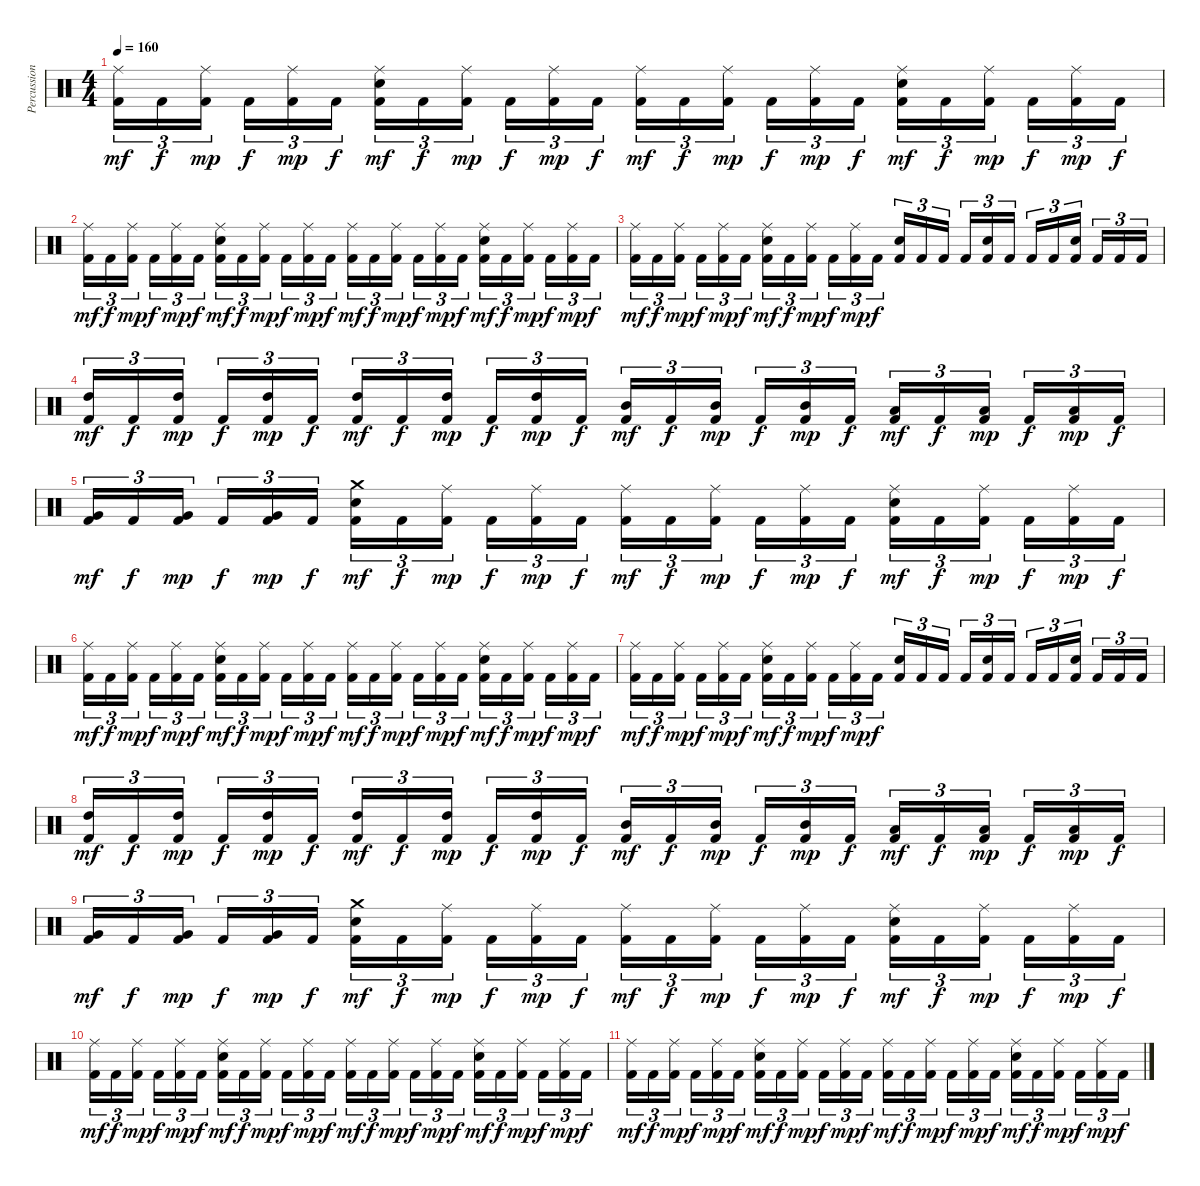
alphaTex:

\track ("Percussion" "Percussion") {instrument percussion}
\staff {score}
\articulation defaults
\ts (4 4)
\tempo 160
\clef neutral
\ks c
("Ride (middle)" "Kick (hit) 2").16{tu (3 2) dy mf} "Kick (hit) 2".16{tu (3 2) dy f} ("Ride (middle)" "Kick (hit) 2").16{tu (3 2) dy mp} "Kick (hit) 2".16{tu (3 2) dy f} ("Ride (middle)" "Kick (hit) 2").16{tu (3 2) dy mp} "Kick (hit) 2".16{tu (3 2) dy f} ("Ride (middle)" "Electric Snare (hit)" "Kick (hit) 2").16{tu (3 2) dy mf} "Kick (hit) 2".16{tu (3 2) dy f} ("Ride (middle)" "Kick (hit) 2").16{tu (3 2) dy mp} "Kick (hit) 2".16{tu (3 2) dy f} ("Ride (middle)" "Kick (hit) 2").16{tu (3 2) dy mp} "Kick (hit) 2".16{tu (3 2) dy f} ("Ride (middle)" "Kick (hit) 2").16{tu (3 2) dy mf} "Kick (hit) 2".16{tu (3 2) dy f} ("Ride (middle)" "Kick (hit) 2").16{tu (3 2) dy mp} "Kick (hit) 2".16{tu (3 2) dy f} ("Ride (middle)" "Kick (hit) 2").16{tu (3 2) dy mp} "Kick (hit) 2".16{tu (3 2) dy f} ("Ride (middle)" "Electric Snare (hit)" "Kick (hit) 2").16{tu (3 2) dy mf} "Kick (hit) 2".16{tu (3 2) dy f} ("Ride (middle)" "Kick (hit) 2").16{tu (3 2) dy mp} "Kick (hit) 2".16{tu (3 2) dy f} ("Ride (middle)" "Kick (hit) 2").16{tu (3 2) dy mp} "Kick (hit) 2".16{tu (3 2) dy f} |
("Ride (middle)" "Kick (hit) 2").16{tu (3 2) dy mf} "Kick (hit) 2".16{tu (3 2) dy f} ("Ride (middle)" "Kick (hit) 2").16{tu (3 2) dy mp} "Kick (hit) 2".16{tu (3 2) dy f} ("Ride (middle)" "Kick (hit) 2").16{tu (3 2) dy mp} "Kick (hit) 2".16{tu (3 2) dy f} ("Ride (middle)" "Electric Snare (hit)" "Kick (hit) 2").16{tu (3 2) dy mf} "Kick (hit) 2".16{tu (3 2) dy f} ("Ride (middle)" "Kick (hit) 2").16{tu (3 2) dy mp} "Kick (hit) 2".16{tu (3 2) dy f} ("Ride (middle)" "Kick (hit) 2").16{tu (3 2) dy mp} "Kick (hit) 2".16{tu (3 2) dy f} ("Ride (middle)" "Kick (hit) 2").16{tu (3 2) dy mf} "Kick (hit) 2".16{tu (3 2) dy f} ("Ride (middle)" "Kick (hit) 2").16{tu (3 2) dy mp} "Kick (hit) 2".16{tu (3 2) dy f} ("Ride (middle)" "Kick (hit) 2").16{tu (3 2) dy mp} "Kick (hit) 2".16{tu (3 2) dy f} ("Ride (middle)" "Electric Snare (hit)" "Kick (hit) 2").16{tu (3 2) dy mf} "Kick (hit) 2".16{tu (3 2) dy f} ("Ride (middle)" "Kick (hit) 2").16{tu (3 2) dy mp} "Kick (hit) 2".16{tu (3 2) dy f} ("Ride (middle)" "Kick (hit) 2").16{tu (3 2) dy mp} "Kick (hit) 2".16{tu (3 2) dy f} |
("Ride (middle)" "Kick (hit) 2").16{tu (3 2) dy mf} "Kick (hit) 2".16{tu (3 2) dy f} ("Ride (middle)" "Kick (hit) 2").16{tu (3 2) dy mp} "Kick (hit) 2".16{tu (3 2) dy f} ("Ride (middle)" "Kick (hit) 2").16{tu (3 2) dy mp} "Kick (hit) 2".16{tu (3 2) dy f} ("Ride (middle)" "Electric Snare (hit)" "Kick (hit) 2").16{tu (3 2) dy mf} "Kick (hit) 2".16{tu (3 2) dy f} ("Ride (middle)" "Kick (hit) 2").16{tu (3 2) dy mp} "Kick (hit) 2".16{tu (3 2) dy f} ("Ride (middle)" "Kick (hit) 2").16{tu (3 2) dy mp} "Kick (hit) 2".16{tu (3 2) dy f} ("Electric Snare (hit)" "Kick (hit) 2").16{tu (3 2)} "Kick (hit) 2".16{tu (3 2)} "Kick (hit) 2".16{tu (3 2)} "Kick (hit) 2".16{tu (3 2)} ("Electric Snare (hit)" "Kick (hit) 2").16{tu (3 2)} "Kick (hit) 2".16{tu (3 2)} "Kick (hit) 2".16{tu (3 2)} "Kick (hit) 2".16{tu (3 2)} ("Electric Snare (hit)" "Kick (hit) 2").16{tu (3 2)} "Kick (hit) 2".16{tu (3 2)} "Kick (hit) 2".16{tu (3 2)} "Kick (hit) 2".16{tu (3 2)} |
("High Tom (hit)" "Kick (hit) 2").16{tu (3 2) dy mf} "Kick (hit) 2".16{tu (3 2) dy f} ("High Tom (hit)" "Kick (hit) 2").16{tu (3 2) dy mp} "Kick (hit) 2".16{tu (3 2) dy f} ("High Tom (hit)" "Kick (hit) 2").16{tu (3 2) dy mp} "Kick (hit) 2".16{tu (3 2) dy f} ("High Tom (hit)" "Kick (hit) 2").16{tu (3 2) dy mf} "Kick (hit) 2".16{tu (3 2) dy f} ("High Tom (hit)" "Kick (hit) 2").16{tu (3 2) dy mp} "Kick (hit) 2".16{tu (3 2) dy f} ("High Tom (hit)" "Kick (hit) 2").16{tu (3 2) dy mp} "Kick (hit) 2".16{tu (3 2) dy f} ("Mid Tom (hit)" "Kick (hit) 2").16{tu (3 2) dy mf} "Kick (hit) 2".16{tu (3 2) dy f} ("Mid Tom (hit)" "Kick (hit) 2").16{tu (3 2) dy mp} "Kick (hit) 2".16{tu (3 2) dy f} ("Mid Tom (hit)" "Kick (hit) 2").16{tu (3 2) dy mp} "Kick (hit) 2".16{tu (3 2) dy f} ("Low Tom (hit)" "Kick (hit) 2").16{tu (3 2) dy mf} "Kick (hit) 2".16{tu (3 2) dy f} ("Low Tom (hit)" "Kick (hit) 2").16{tu (3 2) dy mp} "Kick (hit) 2".16{tu (3 2) dy f} ("Low Tom (hit)" "Kick (hit) 2").16{tu (3 2) dy mp} "Kick (hit) 2".16{tu (3 2) dy f} |
("Very Low Tom (hit)" "Kick (hit) 2").16{tu (3 2) dy mf} "Kick (hit) 2".16{tu (3 2) dy f} ("Very Low Tom (hit)" "Kick (hit) 2").16{tu (3 2) dy mp} "Kick (hit) 2".16{tu (3 2) dy f} ("Very Low Tom (hit)" "Kick (hit) 2").16{tu (3 2) dy mp} "Kick (hit) 2".16{tu (3 2) dy f} ("Crash medium (hit)" "Electric Snare (hit)" "Kick (hit) 2").16{tu (3 2) dy mf} "Kick (hit) 2".16{tu (3 2) dy f} ("Ride (middle)" "Kick (hit) 2").16{tu (3 2) dy mp} "Kick (hit) 2".16{tu (3 2) dy f} ("Ride (middle)" "Kick (hit) 2").16{tu (3 2) dy mp} "Kick (hit) 2".16{tu (3 2) dy f} ("Ride (middle)" "Kick (hit) 2").16{tu (3 2) dy mf} "Kick (hit) 2".16{tu (3 2) dy f} ("Ride (middle)" "Kick (hit) 2").16{tu (3 2) dy mp} "Kick (hit) 2".16{tu (3 2) dy f} ("Ride (middle)" "Kick (hit) 2").16{tu (3 2) dy mp} "Kick (hit) 2".16{tu (3 2) dy f} ("Ride (middle)" "Electric Snare (hit)" "Kick (hit) 2").16{tu (3 2) dy mf} "Kick (hit) 2".16{tu (3 2) dy f} ("Ride (middle)" "Kick (hit) 2").16{tu (3 2) dy mp} "Kick (hit) 2".16{tu (3 2) dy f} ("Ride (middle)" "Kick (hit) 2").16{tu (3 2) dy mp} "Kick (hit) 2".16{tu (3 2) dy f} |
("Ride (middle)" "Kick (hit) 2").16{tu (3 2) dy mf} "Kick (hit) 2".16{tu (3 2) dy f} ("Ride (middle)" "Kick (hit) 2").16{tu (3 2) dy mp} "Kick (hit) 2".16{tu (3 2) dy f} ("Ride (middle)" "Kick (hit) 2").16{tu (3 2) dy mp} "Kick (hit) 2".16{tu (3 2) dy f} ("Ride (middle)" "Electric Snare (hit)" "Kick (hit) 2").16{tu (3 2) dy mf} "Kick (hit) 2".16{tu (3 2) dy f} ("Ride (middle)" "Kick (hit) 2").16{tu (3 2) dy mp} "Kick (hit) 2".16{tu (3 2) dy f} ("Ride (middle)" "Kick (hit) 2").16{tu (3 2) dy mp} "Kick (hit) 2".16{tu (3 2) dy f} ("Ride (middle)" "Kick (hit) 2").16{tu (3 2) dy mf} "Kick (hit) 2".16{tu (3 2) dy f} ("Ride (middle)" "Kick (hit) 2").16{tu (3 2) dy mp} "Kick (hit) 2".16{tu (3 2) dy f} ("Ride (middle)" "Kick (hit) 2").16{tu (3 2) dy mp} "Kick (hit) 2".16{tu (3 2) dy f} ("Ride (middle)" "Electric Snare (hit)" "Kick (hit) 2").16{tu (3 2) dy mf} "Kick (hit) 2".16{tu (3 2) dy f} ("Ride (middle)" "Kick (hit) 2").16{tu (3 2) dy mp} "Kick (hit) 2".16{tu (3 2) dy f} ("Ride (middle)" "Kick (hit) 2").16{tu (3 2) dy mp} "Kick (hit) 2".16{tu (3 2) dy f} |
("Ride (middle)" "Kick (hit) 2").16{tu (3 2) dy mf} "Kick (hit) 2".16{tu (3 2) dy f} ("Ride (middle)" "Kick (hit) 2").16{tu (3 2) dy mp} "Kick (hit) 2".16{tu (3 2) dy f} ("Ride (middle)" "Kick (hit) 2").16{tu (3 2) dy mp} "Kick (hit) 2".16{tu (3 2) dy f} ("Ride (middle)" "Electric Snare (hit)" "Kick (hit) 2").16{tu (3 2) dy mf} "Kick (hit) 2".16{tu (3 2) dy f} ("Ride (middle)" "Kick (hit) 2").16{tu (3 2) dy mp} "Kick (hit) 2".16{tu (3 2) dy f} ("Ride (middle)" "Kick (hit) 2").16{tu (3 2) dy mp} "Kick (hit) 2".16{tu (3 2) dy f} ("Electric Snare (hit)" "Kick (hit) 2").16{tu (3 2)} "Kick (hit) 2".16{tu (3 2)} "Kick (hit) 2".16{tu (3 2)} "Kick (hit) 2".16{tu (3 2)} ("Electric Snare (hit)" "Kick (hit) 2").16{tu (3 2)} "Kick (hit) 2".16{tu (3 2)} "Kick (hit) 2".16{tu (3 2)} "Kick (hit) 2".16{tu (3 2)} ("Electric Snare (hit)" "Kick (hit) 2").16{tu (3 2)} "Kick (hit) 2".16{tu (3 2)} "Kick (hit) 2".16{tu (3 2)} "Kick (hit) 2".16{tu (3 2)} |
("High Tom (hit)" "Kick (hit) 2").16{tu (3 2) dy mf volume 0} "Kick (hit) 2".16{tu (3 2) dy f} ("High Tom (hit)" "Kick (hit) 2").16{tu (3 2) dy mp} "Kick (hit) 2".16{tu (3 2) dy f} ("High Tom (hit)" "Kick (hit) 2").16{tu (3 2) dy mp} "Kick (hit) 2".16{tu (3 2) dy f} ("High Tom (hit)" "Kick (hit) 2").16{tu (3 2) dy mf} "Kick (hit) 2".16{tu (3 2) dy f} ("High Tom (hit)" "Kick (hit) 2").16{tu (3 2) dy mp} "Kick (hit) 2".16{tu (3 2) dy f} ("High Tom (hit)" "Kick (hit) 2").16{tu (3 2) dy mp} "Kick (hit) 2".16{tu (3 2) dy f} ("Mid Tom (hit)" "Kick (hit) 2").16{tu (3 2) dy mf} "Kick (hit) 2".16{tu (3 2) dy f} ("Mid Tom (hit)" "Kick (hit) 2").16{tu (3 2) dy mp} "Kick (hit) 2".16{tu (3 2) dy f} ("Mid Tom (hit)" "Kick (hit) 2").16{tu (3 2) dy mp} "Kick (hit) 2".16{tu (3 2) dy f} ("Low Tom (hit)" "Kick (hit) 2").16{tu (3 2) dy mf} "Kick (hit) 2".16{tu (3 2) dy f} ("Low Tom (hit)" "Kick (hit) 2").16{tu (3 2) dy mp} "Kick (hit) 2".16{tu (3 2) dy f} ("Low Tom (hit)" "Kick (hit) 2").16{tu (3 2) dy mp} "Kick (hit) 2".16{tu (3 2) dy f} |
("Very Low Tom (hit)" "Kick (hit) 2").16{tu (3 2) dy mf} "Kick (hit) 2".16{tu (3 2) dy f} ("Very Low Tom (hit)" "Kick (hit) 2").16{tu (3 2) dy mp} "Kick (hit) 2".16{tu (3 2) dy f} ("Very Low Tom (hit)" "Kick (hit) 2").16{tu (3 2) dy mp} "Kick (hit) 2".16{tu (3 2) dy f} ("Crash medium (hit)" "Electric Snare (hit)" "Kick (hit) 2").16{tu (3 2) dy mf} "Kick (hit) 2".16{tu (3 2) dy f} ("Ride (middle)" "Kick (hit) 2").16{tu (3 2) dy mp} "Kick (hit) 2".16{tu (3 2) dy f} ("Ride (middle)" "Kick (hit) 2").16{tu (3 2) dy mp} "Kick (hit) 2".16{tu (3 2) dy f} ("Ride (middle)" "Kick (hit) 2").16{tu (3 2) dy mf} "Kick (hit) 2".16{tu (3 2) dy f} ("Ride (middle)" "Kick (hit) 2").16{tu (3 2) dy mp} "Kick (hit) 2".16{tu (3 2) dy f} ("Ride (middle)" "Kick (hit) 2").16{tu (3 2) dy mp} "Kick (hit) 2".16{tu (3 2) dy f} ("Ride (middle)" "Electric Snare (hit)" "Kick (hit) 2").16{tu (3 2) dy mf} "Kick (hit) 2".16{tu (3 2) dy f} ("Ride (middle)" "Kick (hit) 2").16{tu (3 2) dy mp} "Kick (hit) 2".16{tu (3 2) dy f} ("Ride (middle)" "Kick (hit) 2").16{tu (3 2) dy mp} "Kick (hit) 2".16{tu (3 2) dy f} |
("Ride (middle)" "Kick (hit) 2").16{tu (3 2) dy mf} "Kick (hit) 2".16{tu (3 2) dy f} ("Ride (middle)" "Kick (hit) 2").16{tu (3 2) dy mp} "Kick (hit) 2".16{tu (3 2) dy f} ("Ride (middle)" "Kick (hit) 2").16{tu (3 2) dy mp} "Kick (hit) 2".16{tu (3 2) dy f} ("Ride (middle)" "Electric Snare (hit)" "Kick (hit) 2").16{tu (3 2) dy mf} "Kick (hit) 2".16{tu (3 2) dy f} ("Ride (middle)" "Kick (hit) 2").16{tu (3 2) dy mp} "Kick (hit) 2".16{tu (3 2) dy f} ("Ride (middle)" "Kick (hit) 2").16{tu (3 2) dy mp} "Kick (hit) 2".16{tu (3 2) dy f} ("Ride (middle)" "Kick (hit) 2").16{tu (3 2) dy mf} "Kick (hit) 2".16{tu (3 2) dy f} ("Ride (middle)" "Kick (hit) 2").16{tu (3 2) dy mp} "Kick (hit) 2".16{tu (3 2) dy f} ("Ride (middle)" "Kick (hit) 2").16{tu (3 2) dy mp} "Kick (hit) 2".16{tu (3 2) dy f} ("Ride (middle)" "Electric Snare (hit)" "Kick (hit) 2").16{tu (3 2) dy mf} "Kick (hit) 2".16{tu (3 2) dy f} ("Ride (middle)" "Kick (hit) 2").16{tu (3 2) dy mp} "Kick (hit) 2".16{tu (3 2) dy f} ("Ride (middle)" "Kick (hit) 2").16{tu (3 2) dy mp} "Kick (hit) 2".16{tu (3 2) dy f} |
("Ride (middle)" "Kick (hit) 2").16{tu (3 2) dy mf} "Kick (hit) 2".16{tu (3 2) dy f} ("Ride (middle)" "Kick (hit) 2").16{tu (3 2) dy mp} "Kick (hit) 2".16{tu (3 2) dy f} ("Ride (middle)" "Kick (hit) 2").16{tu (3 2) dy mp} "Kick (hit) 2".16{tu (3 2) dy f} ("Ride (middle)" "Electric Snare (hit)" "Kick (hit) 2").16{tu (3 2) dy mf} "Kick (hit) 2".16{tu (3 2) dy f} ("Ride (middle)" "Kick (hit) 2").16{tu (3 2) dy mp} "Kick (hit) 2".16{tu (3 2) dy f} ("Ride (middle)" "Kick (hit) 2").16{tu (3 2) dy mp} "Kick (hit) 2".16{tu (3 2) dy f} ("Ride (middle)" "Kick (hit) 2").16{tu (3 2) dy mf} "Kick (hit) 2".16{tu (3 2) dy f} ("Ride (middle)" "Kick (hit) 2").16{tu (3 2) dy mp} "Kick (hit) 2".16{tu (3 2) dy f} ("Ride (middle)" "Kick (hit) 2").16{tu (3 2) dy mp} "Kick (hit) 2".16{tu (3 2) dy f} ("Ride (middle)" "Electric Snare (hit)" "Kick (hit) 2").16{tu (3 2) dy mf} "Kick (hit) 2".16{tu (3 2) dy f} ("Ride (middle)" "Kick (hit) 2").16{tu (3 2) dy mp} "Kick (hit) 2".16{tu (3 2) dy f} ("Ride (middle)" "Kick (hit) 2").16{tu (3 2) dy mp} "Kick (hit) 2".16{tu (3 2) dy f}
